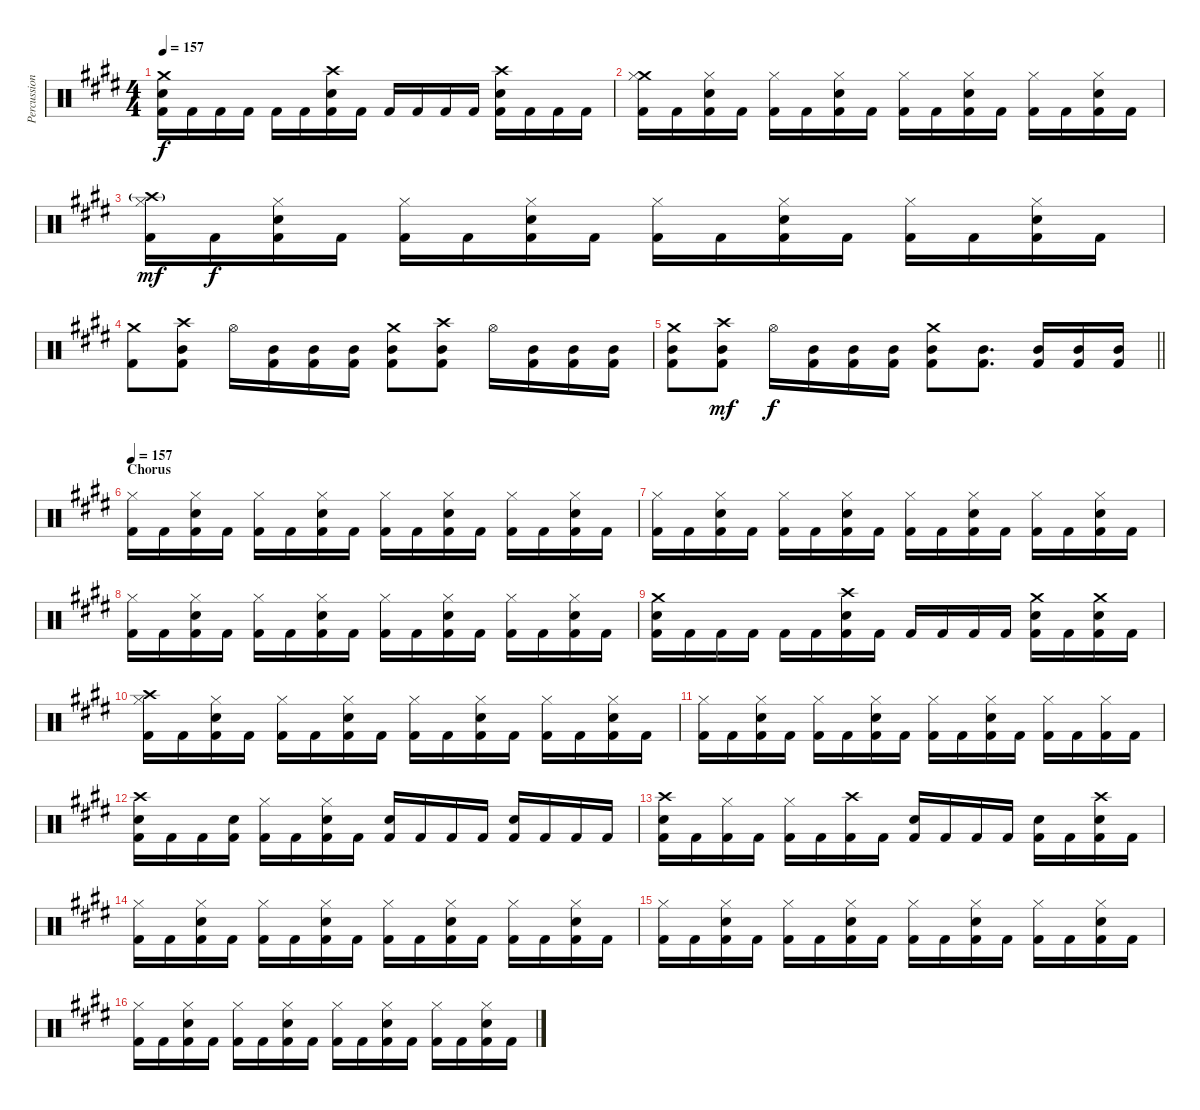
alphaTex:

\track ("Percussion (Thomen Stauch)" "Percussion") {instrument percussion}
\staff {score}
\articulation defaults
\ts (4 4)
\tempo 157
\clef neutral
\ks c#minor
("Crash medium (hit)" "Snare (hit) 2" "Kick (hit) 2").16{dy f} "Kick (hit) 2".16 "Kick (hit) 2".16 "Kick (hit) 2".16 "Kick (hit) 2".16 "Kick (hit) 2".16 ("Crash high (hit)" "Snare (hit) 2" "Kick (hit) 2").16 "Kick (hit) 2".16 "Kick (hit) 2".16 "Kick (hit) 2".16 "Kick (hit) 2".16 "Kick (hit) 2".16 ("Crash high (hit)" "Snare (hit) 2" "Kick (hit) 2").16 "Kick (hit) 2".16 "Kick (hit) 2".16 "Kick (hit) 2".16 |
("Crash medium (hit)" "Hi-Hat (closed)" "Kick (hit) 2").16 "Kick (hit) 2".16 ("Hi-Hat (closed)" "Snare (hit) 2" "Kick (hit) 2").16 "Kick (hit) 2".16 ("Hi-Hat (closed)" "Kick (hit) 2").16 "Kick (hit) 2".16 ("Hi-Hat (closed)" "Snare (hit) 2" "Kick (hit) 2").16 "Kick (hit) 2".16 ("Hi-Hat (closed)" "Kick (hit) 2").16 "Kick (hit) 2".16 ("Hi-Hat (closed)" "Snare (hit) 2" "Kick (hit) 2").16 "Kick (hit) 2".16 ("Hi-Hat (closed)" "Kick (hit) 2").16 "Kick (hit) 2".16 ("Hi-Hat (closed)" "Snare (hit) 2" "Kick (hit) 2").16 "Kick (hit) 2".16 |
("Crash high (hit)"{g} "Hi-Hat (closed)" "Kick (hit) 2").16{dy mf} "Kick (hit) 2".16{dy f} ("Hi-Hat (closed)" "Snare (hit) 2" "Kick (hit) 2").16 "Kick (hit) 2".16 ("Hi-Hat (closed)" "Kick (hit) 2").16 "Kick (hit) 2".16 ("Hi-Hat (closed)" "Snare (hit) 2" "Kick (hit) 2").16 "Kick (hit) 2".16 ("Hi-Hat (closed)" "Kick (hit) 2").16 "Kick (hit) 2".16 ("Hi-Hat (closed)" "Snare (hit) 2" "Kick (hit) 2").16 "Kick (hit) 2".16 ("Hi-Hat (closed)" "Kick (hit) 2").16 "Kick (hit) 2".16 ("Hi-Hat (closed)" "Snare (hit) 2" "Kick (hit) 2").16 "Kick (hit) 2".16 |
("Crash medium (hit)" "Kick (hit) 2").8 ("Crash high (hit)" "Mid Tom (hit)" "Kick (hit) 2").8 "Hi-Hat (open)".16 ("Mid Tom (hit)" "Kick (hit) 2").16 ("Mid Tom (hit)" "Kick (hit) 2").16 ("Mid Tom (hit)" "Kick (hit) 2").16 ("Crash medium (hit)" "Mid Tom (hit)" "Kick (hit) 2").8 ("Crash high (hit)" "Mid Tom (hit)" "Kick (hit) 2").8 "Hi-Hat (open)".16 ("Mid Tom (hit)" "Kick (hit) 2").16 ("Mid Tom (hit)" "Kick (hit) 2").16 ("Mid Tom (hit)" "Kick (hit) 2").16 |
\barLineRight lightlight
("Crash medium (hit)" "Mid Tom (hit)" "Kick (hit) 2").8 ("Crash high (hit)" "Mid Tom (hit)" "Kick (hit) 2").8{dy mf} "Hi-Hat (open)".16{dy f} ("Mid Tom (hit)" "Kick (hit) 2").16 ("Mid Tom (hit)" "Kick (hit) 2").16 ("Mid Tom (hit)" "Kick (hit) 2").16 ("Crash medium (hit)" "Mid Tom (hit)" "Kick (hit) 2").8 ("Mid Tom (hit)" "Kick (hit) 2").8{d} ("Mid Tom (hit)" "Kick (hit) 2").16 ("Mid Tom (hit)" "Kick (hit) 2").16 ("Mid Tom (hit)" "Kick (hit) 2").16 |
\section ("" "Chorus")
\tempo 157
("Hi-Hat (closed)" "Kick (hit) 2").16 "Kick (hit) 2".16 ("Hi-Hat (closed)" "Snare (hit) 2" "Kick (hit) 2").16 "Kick (hit) 2".16 ("Hi-Hat (closed)" "Kick (hit) 2").16 "Kick (hit) 2".16 ("Hi-Hat (closed)" "Snare (hit) 2" "Kick (hit) 2").16 "Kick (hit) 2".16 ("Hi-Hat (closed)" "Kick (hit) 2").16 "Kick (hit) 2".16 ("Hi-Hat (closed)" "Snare (hit) 2" "Kick (hit) 2").16 "Kick (hit) 2".16 ("Hi-Hat (closed)" "Kick (hit) 2").16 "Kick (hit) 2".16 ("Hi-Hat (closed)" "Snare (hit) 2" "Kick (hit) 2").16 "Kick (hit) 2".16 |
("Hi-Hat (closed)" "Kick (hit) 2").16 "Kick (hit) 2".16 ("Hi-Hat (closed)" "Snare (hit) 2" "Kick (hit) 2").16 "Kick (hit) 2".16 ("Hi-Hat (closed)" "Kick (hit) 2").16 "Kick (hit) 2".16 ("Hi-Hat (closed)" "Snare (hit) 2" "Kick (hit) 2").16 "Kick (hit) 2".16 ("Hi-Hat (closed)" "Kick (hit) 2").16 "Kick (hit) 2".16 ("Hi-Hat (closed)" "Snare (hit) 2" "Kick (hit) 2").16 "Kick (hit) 2".16 ("Hi-Hat (closed)" "Kick (hit) 2").16 "Kick (hit) 2".16 ("Hi-Hat (closed)" "Snare (hit) 2" "Kick (hit) 2").16 "Kick (hit) 2".16 |
("Hi-Hat (closed)" "Kick (hit) 2").16 "Kick (hit) 2".16 ("Hi-Hat (closed)" "Snare (hit) 2" "Kick (hit) 2").16 "Kick (hit) 2".16 ("Hi-Hat (closed)" "Kick (hit) 2").16 "Kick (hit) 2".16 ("Hi-Hat (closed)" "Snare (hit) 2" "Kick (hit) 2").16 "Kick (hit) 2".16 ("Hi-Hat (closed)" "Kick (hit) 2").16 "Kick (hit) 2".16 ("Hi-Hat (closed)" "Snare (hit) 2" "Kick (hit) 2").16 "Kick (hit) 2".16 ("Hi-Hat (closed)" "Kick (hit) 2").16 "Kick (hit) 2".16 ("Hi-Hat (closed)" "Snare (hit) 2" "Kick (hit) 2").16 "Kick (hit) 2".16 |
("Crash medium (hit)" "Snare (hit) 2" "Kick (hit) 2").16 "Kick (hit) 2".16 "Kick (hit) 2".16 "Kick (hit) 2".16 "Kick (hit) 2".16 "Kick (hit) 2".16 ("Crash high (hit)" "Snare (hit) 2" "Kick (hit) 2").16 "Kick (hit) 2".16 "Kick (hit) 2".16 "Kick (hit) 2".16 "Kick (hit) 2".16 "Kick (hit) 2".16 ("Crash medium (hit)" "Snare (hit) 2" "Kick (hit) 2").16 "Kick (hit) 2".16 ("Crash medium (hit)" "Snare (hit) 2" "Kick (hit) 2").16 "Kick (hit) 2".16 |
("Crash high (hit)" "Hi-Hat (closed)" "Kick (hit) 2").16 "Kick (hit) 2".16 ("Hi-Hat (closed)" "Snare (hit) 2" "Kick (hit) 2").16 "Kick (hit) 2".16 ("Hi-Hat (closed)" "Kick (hit) 2").16 "Kick (hit) 2".16 ("Hi-Hat (closed)" "Snare (hit) 2" "Kick (hit) 2").16 "Kick (hit) 2".16 ("Hi-Hat (closed)" "Kick (hit) 2").16 "Kick (hit) 2".16 ("Hi-Hat (closed)" "Snare (hit) 2" "Kick (hit) 2").16 "Kick (hit) 2".16 ("Hi-Hat (closed)" "Kick (hit) 2").16 "Kick (hit) 2".16 ("Hi-Hat (closed)" "Snare (hit) 2" "Kick (hit) 2").16 "Kick (hit) 2".16 |
("Hi-Hat (closed)" "Kick (hit) 2").16 "Kick (hit) 2".16 ("Hi-Hat (closed)" "Snare (hit) 2" "Kick (hit) 2").16 "Kick (hit) 2".16 ("Hi-Hat (closed)" "Kick (hit) 2").16 "Kick (hit) 2".16 ("Hi-Hat (closed)" "Snare (hit) 2" "Kick (hit) 2").16 "Kick (hit) 2".16 ("Hi-Hat (closed)" "Kick (hit) 2").16 "Kick (hit) 2".16 ("Hi-Hat (closed)" "Snare (hit) 2" "Kick (hit) 2").16 "Kick (hit) 2".16 ("Hi-Hat (closed)" "Kick (hit) 2").16 "Kick (hit) 2".16 ("Hi-Hat (closed)" "Kick (hit) 2").16 "Kick (hit) 2".16 |
("Crash high (hit)" "Snare (hit) 2" "Kick (hit) 2").16 "Kick (hit) 2".16 "Kick (hit) 2".16 ("Snare (hit) 2" "Kick (hit) 2").16 ("Hi-Hat (closed)" "Kick (hit) 2").16 "Kick (hit) 2".16 ("Hi-Hat (closed)" "Snare (hit) 2" "Kick (hit) 2").16 "Kick (hit) 2".16 ("Snare (hit) 2" "Kick (hit) 2").16 "Kick (hit) 2".16 "Kick (hit) 2".16 "Kick (hit) 2".16 ("Snare (hit) 2" "Kick (hit) 2").16 "Kick (hit) 2".16 "Kick (hit) 2".16 "Kick (hit) 2".16 |
("Crash high (hit)" "Snare (hit) 2" "Kick (hit) 2").16 "Kick (hit) 2".16 ("Hi-Hat (closed)" "Kick (hit) 2").16 "Kick (hit) 2".16 ("Hi-Hat (closed)" "Kick (hit) 2").16 "Kick (hit) 2".16 ("Crash high (hit)" "Kick (hit) 2").16 "Kick (hit) 2".16 ("Snare (hit) 2" "Kick (hit) 2").16 "Kick (hit) 2".16 "Kick (hit) 2".16 "Kick (hit) 2".16 ("Snare (hit) 2" "Kick (hit) 2").16 "Kick (hit) 2".16 ("Crash high (hit)" "Snare (hit) 2" "Kick (hit) 2").16 "Kick (hit) 2".16 |
("Hi-Hat (closed)" "Kick (hit) 2").16 "Kick (hit) 2".16 ("Hi-Hat (closed)" "Snare (hit) 2" "Kick (hit) 2").16 "Kick (hit) 2".16 ("Hi-Hat (closed)" "Kick (hit) 2").16 "Kick (hit) 2".16 ("Hi-Hat (closed)" "Snare (hit) 2" "Kick (hit) 2").16 "Kick (hit) 2".16 ("Hi-Hat (closed)" "Kick (hit) 2").16 "Kick (hit) 2".16 ("Hi-Hat (closed)" "Snare (hit) 2" "Kick (hit) 2").16 "Kick (hit) 2".16 ("Hi-Hat (closed)" "Kick (hit) 2").16 "Kick (hit) 2".16 ("Hi-Hat (closed)" "Snare (hit) 2" "Kick (hit) 2").16 "Kick (hit) 2".16 |
("Hi-Hat (closed)" "Kick (hit) 2").16 "Kick (hit) 2".16 ("Hi-Hat (closed)" "Snare (hit) 2" "Kick (hit) 2").16 "Kick (hit) 2".16 ("Hi-Hat (closed)" "Kick (hit) 2").16 "Kick (hit) 2".16 ("Hi-Hat (closed)" "Snare (hit) 2" "Kick (hit) 2").16 "Kick (hit) 2".16 ("Hi-Hat (closed)" "Kick (hit) 2").16 "Kick (hit) 2".16 ("Hi-Hat (closed)" "Snare (hit) 2" "Kick (hit) 2").16 "Kick (hit) 2".16 ("Hi-Hat (closed)" "Kick (hit) 2").16 "Kick (hit) 2".16 ("Hi-Hat (closed)" "Snare (hit) 2" "Kick (hit) 2").16 "Kick (hit) 2".16 |
("Hi-Hat (closed)" "Kick (hit) 2").16 "Kick (hit) 2".16 ("Hi-Hat (closed)" "Snare (hit) 2" "Kick (hit) 2").16 "Kick (hit) 2".16 ("Hi-Hat (closed)" "Kick (hit) 2").16 "Kick (hit) 2".16 ("Hi-Hat (closed)" "Snare (hit) 2" "Kick (hit) 2").16 "Kick (hit) 2".16 ("Hi-Hat (closed)" "Kick (hit) 2").16 "Kick (hit) 2".16 ("Hi-Hat (closed)" "Snare (hit) 2" "Kick (hit) 2").16 "Kick (hit) 2".16 ("Hi-Hat (closed)" "Kick (hit) 2").16 "Kick (hit) 2".16 ("Hi-Hat (closed)" "Snare (hit) 2" "Kick (hit) 2").16 "Kick (hit) 2".16
